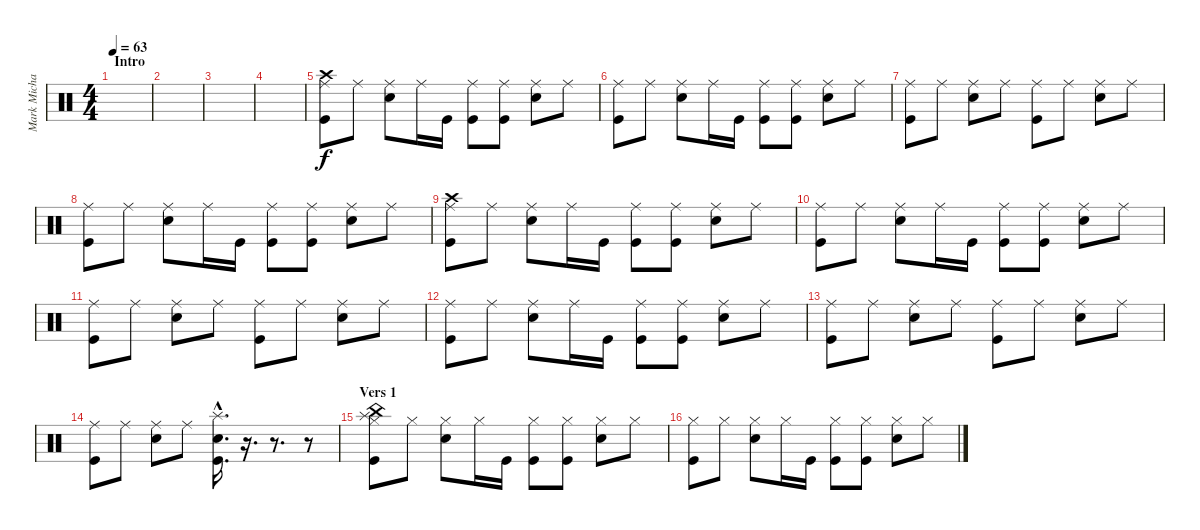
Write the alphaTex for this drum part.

\track ("Mark Michals - Drums" "Mark Micha") {instrument percussion}
\staff {score}
\articulation defaults
\ts (4 4)
\section ("" "Intro")
\tempo 63
\clef neutral
\ks c
|
|
|
|
("Ride (middle)" "Crash high (hit)" "Kick (hit)").8 "Ride (middle)".8 ("Ride (middle)" "Snare (hit) 2").8 "Ride (middle)".16 "Kick (hit)".16 ("Ride (middle)" "Kick (hit)").8 ("Ride (middle)" "Kick (hit)").8 ("Ride (middle)" "Snare (hit) 2").8 "Ride (middle)".8 |
("Ride (middle)" "Kick (hit)").8 "Ride (middle)".8 ("Ride (middle)" "Snare (hit) 2").8 "Ride (middle)".16 "Kick (hit)".16 ("Ride (middle)" "Kick (hit)").8 ("Ride (middle)" "Kick (hit)").8 ("Ride (middle)" "Snare (hit) 2").8 "Ride (middle)".8 |
("Ride (middle)" "Kick (hit)").8 "Ride (middle)".8 ("Ride (middle)" "Snare (hit) 2").8 "Ride (middle)".8 ("Ride (middle)" "Kick (hit)").8 "Ride (middle)".8 ("Ride (middle)" "Snare (hit) 2").8 "Ride (middle)".8 |
("Ride (middle)" "Kick (hit)").8 "Ride (middle)".8 ("Ride (middle)" "Snare (hit) 2").8 "Ride (middle)".16 "Kick (hit)".16 ("Ride (middle)" "Kick (hit)").8 ("Ride (middle)" "Kick (hit)").8 ("Ride (middle)" "Snare (hit) 2").8 "Ride (middle)".8 |
("Ride (middle)" "Crash high (hit)" "Kick (hit)").8 "Ride (middle)".8 ("Ride (middle)" "Snare (hit) 2").8 "Ride (middle)".16 "Kick (hit)".16 ("Ride (middle)" "Kick (hit)").8 ("Ride (middle)" "Kick (hit)").8 ("Ride (middle)" "Snare (hit) 2").8 "Ride (middle)".8 |
("Ride (middle)" "Kick (hit)").8 "Ride (middle)".8 ("Ride (middle)" "Snare (hit) 2").8 "Ride (middle)".16 "Kick (hit)".16 ("Ride (middle)" "Kick (hit)").8 ("Ride (middle)" "Kick (hit)").8 ("Ride (middle)" "Snare (hit) 2").8 "Ride (middle)".8 |
("Ride (middle)" "Kick (hit)").8 "Ride (middle)".8 ("Ride (middle)" "Snare (hit) 2").8 "Ride (middle)".8 ("Ride (middle)" "Kick (hit)").8 "Ride (middle)".8 ("Ride (middle)" "Snare (hit) 2").8 "Ride (middle)".8 |
("Ride (middle)" "Kick (hit)").8 "Ride (middle)".8 ("Ride (middle)" "Snare (hit) 2").8 "Ride (middle)".16 "Kick (hit)".16 ("Ride (middle)" "Kick (hit)").8 ("Ride (middle)" "Kick (hit)").8 ("Ride (middle)" "Snare (hit) 2").8 "Ride (middle)".8 |
("Ride (middle)" "Kick (hit)").8 "Ride (middle)".8 ("Ride (middle)" "Snare (hit) 2").8 "Ride (middle)".8 ("Ride (middle)" "Kick (hit)").8 "Ride (middle)".8 ("Ride (middle)" "Snare (hit) 2").8 "Ride (middle)".8 |
("Ride (middle)" "Kick (hit)").8 "Ride (middle)".8 ("Ride (middle)" "Snare (hit) 2").8 "Ride (middle)".8 ("Splash (hit)"{hac} "Snare (hit) 2"{hac} "Kick (hit)"{hac}).16{d} r.16{d volume 0} r.8{d} r.8{volume 13} |
\section ("" "Vers 1")
("Hi-Hat (closed)" "China (hit)" "Splash (hit)" "Kick (hit)").8 "Hi-Hat (closed)".8 ("Hi-Hat (closed)" "Snare (hit) 2").8 "Hi-Hat (closed)".16 "Kick (hit)".16 ("Hi-Hat (closed)" "Kick (hit)").8 ("Hi-Hat (closed)" "Kick (hit)").8 ("Hi-Hat (closed)" "Snare (hit) 2").8 "Hi-Hat (closed)".8 |
("Hi-Hat (closed)" "Kick (hit)").8 "Hi-Hat (closed)".8 ("Hi-Hat (closed)" "Snare (hit) 2").8 "Hi-Hat (closed)".16 "Kick (hit)".16 ("Hi-Hat (closed)" "Kick (hit)").8 ("Hi-Hat (closed)" "Kick (hit)").8 ("Hi-Hat (closed)" "Snare (hit) 2").8 "Hi-Hat (closed)".8
